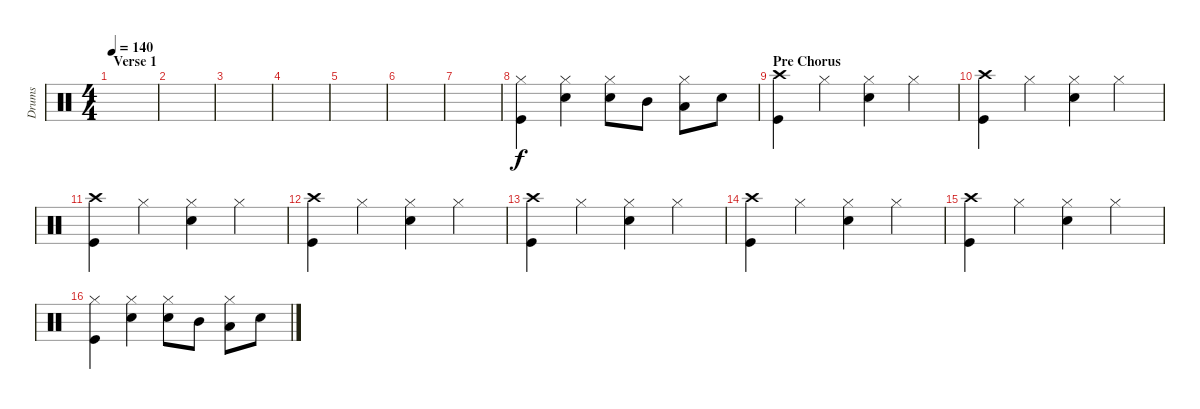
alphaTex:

\track ("Drums" "Drums") {instrument percussion}
\staff {score}
\articulation defaults
\ts (4 4)
\section ("" "Verse 1")
\tempo 140
\clef neutral
\ks c
|
|
|
|
|
|
|
("Hi-Hat (closed)" "Kick (hit)").4 ("Hi-Hat (closed)" "Snare (hit) 2").4 ("Hi-Hat (closed)" "Snare (hit) 2").8 "Mid Tom (hit)".8 ("Hi-Hat (closed)" "Low Tom (hit)").8 "Snare (hit) 2".8 |
\section ("" "Pre Chorus")
("Crash high (hit)" "Kick (hit)").4 "Hi-Hat (closed)".4 ("Hi-Hat (closed)" "Snare (hit) 2").4 "Hi-Hat (closed)".4 |
("Crash high (hit)" "Kick (hit)").4 "Hi-Hat (closed)".4 ("Hi-Hat (closed)" "Snare (hit) 2").4 "Hi-Hat (closed)".4 |
("Crash high (hit)" "Kick (hit)").4 "Hi-Hat (closed)".4 ("Hi-Hat (closed)" "Snare (hit) 2").4 "Hi-Hat (closed)".4 |
("Crash high (hit)" "Kick (hit)").4 "Hi-Hat (closed)".4 ("Hi-Hat (closed)" "Snare (hit) 2").4 "Hi-Hat (closed)".4 |
("Crash high (hit)" "Kick (hit)").4 "Hi-Hat (closed)".4 ("Hi-Hat (closed)" "Snare (hit) 2").4 "Hi-Hat (closed)".4 |
("Crash high (hit)" "Kick (hit)").4 "Hi-Hat (closed)".4 ("Hi-Hat (closed)" "Snare (hit) 2").4 "Hi-Hat (closed)".4 |
("Crash high (hit)" "Kick (hit)").4 "Hi-Hat (closed)".4 ("Hi-Hat (closed)" "Snare (hit) 2").4 "Hi-Hat (closed)".4 |
("Hi-Hat (closed)" "Kick (hit)").4 ("Hi-Hat (closed)" "Snare (hit) 2").4 ("Hi-Hat (closed)" "Snare (hit) 2").8 "Mid Tom (hit)".8 ("Hi-Hat (closed)" "Low Tom (hit)").8 "Snare (hit) 2".8
